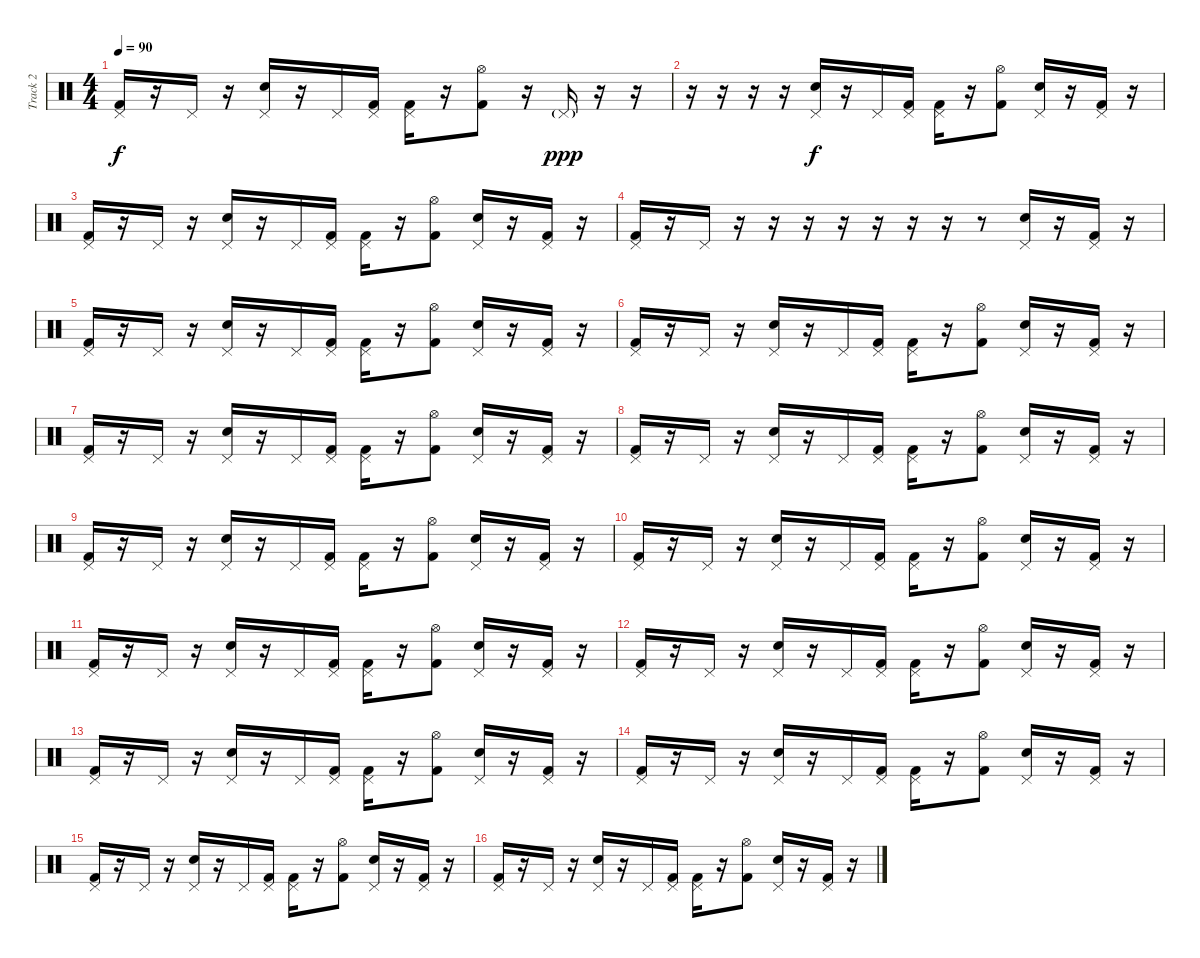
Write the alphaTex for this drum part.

\track ("Track 2" "Track 2") {instrument percussion}
\staff {score}
\articulation defaults
\ts (4 4)
\tempo 90
\clef neutral
\ks c
("Pedal Hi-Hat (hit)" "Kick (hit) 2").16{dy f} r.16 "Pedal Hi-Hat (hit)".16 r.16 ("Pedal Hi-Hat (hit)" "Electric Snare (hit)").16 r.16 "Pedal Hi-Hat (hit)".16 ("Pedal Hi-Hat (hit)" "Kick (hit) 2").16 ("Pedal Hi-Hat (hit)" "Kick (hit) 2").16 r.16 ("Hi-Hat (open)" "Kick (hit) 2").8 r.16 "Pedal Hi-Hat (hit)"{g}.16{dy ppp} r.16 r.16 |
r.16 r.16 r.16 r.16 ("Pedal Hi-Hat (hit)" "Electric Snare (hit)").16{dy f} r.16 "Pedal Hi-Hat (hit)".16 ("Pedal Hi-Hat (hit)" "Kick (hit) 2").16 ("Pedal Hi-Hat (hit)" "Kick (hit) 2").16 r.16 ("Hi-Hat (open)" "Kick (hit) 2").8 ("Pedal Hi-Hat (hit)" "Electric Snare (hit)").16 r.16 ("Pedal Hi-Hat (hit)" "Kick (hit) 2").16 r.16 |
("Pedal Hi-Hat (hit)" "Kick (hit) 2").16 r.16 "Pedal Hi-Hat (hit)".16 r.16 ("Pedal Hi-Hat (hit)" "Electric Snare (hit)").16 r.16 "Pedal Hi-Hat (hit)".16 ("Pedal Hi-Hat (hit)" "Kick (hit) 2").16 ("Pedal Hi-Hat (hit)" "Kick (hit) 2").16 r.16 ("Hi-Hat (open)" "Kick (hit) 2").8 ("Pedal Hi-Hat (hit)" "Electric Snare (hit)").16 r.16 ("Pedal Hi-Hat (hit)" "Kick (hit) 2").16 r.16 |
("Pedal Hi-Hat (hit)" "Kick (hit) 2").16 r.16 "Pedal Hi-Hat (hit)".16 r.16 r.16 r.16 r.16 r.16 r.16 r.16 r.8 ("Pedal Hi-Hat (hit)" "Electric Snare (hit)").16 r.16 ("Pedal Hi-Hat (hit)" "Kick (hit) 2").16 r.16 |
("Pedal Hi-Hat (hit)" "Kick (hit) 2").16 r.16 "Pedal Hi-Hat (hit)".16 r.16 ("Pedal Hi-Hat (hit)" "Electric Snare (hit)").16 r.16 "Pedal Hi-Hat (hit)".16 ("Pedal Hi-Hat (hit)" "Kick (hit) 2").16 ("Pedal Hi-Hat (hit)" "Kick (hit) 2").16 r.16 ("Hi-Hat (open)" "Kick (hit) 2").8 ("Pedal Hi-Hat (hit)" "Electric Snare (hit)").16 r.16 ("Pedal Hi-Hat (hit)" "Kick (hit) 2").16 r.16 |
("Pedal Hi-Hat (hit)" "Kick (hit) 2").16 r.16 "Pedal Hi-Hat (hit)".16 r.16 ("Pedal Hi-Hat (hit)" "Electric Snare (hit)").16 r.16 "Pedal Hi-Hat (hit)".16 ("Pedal Hi-Hat (hit)" "Kick (hit) 2").16 ("Pedal Hi-Hat (hit)" "Kick (hit) 2").16 r.16 ("Hi-Hat (open)" "Kick (hit) 2").8 ("Pedal Hi-Hat (hit)" "Electric Snare (hit)").16 r.16 ("Pedal Hi-Hat (hit)" "Kick (hit) 2").16 r.16 |
("Pedal Hi-Hat (hit)" "Kick (hit) 2").16 r.16 "Pedal Hi-Hat (hit)".16 r.16 ("Pedal Hi-Hat (hit)" "Electric Snare (hit)").16 r.16 "Pedal Hi-Hat (hit)".16 ("Pedal Hi-Hat (hit)" "Kick (hit) 2").16 ("Pedal Hi-Hat (hit)" "Kick (hit) 2").16 r.16 ("Hi-Hat (open)" "Kick (hit) 2").8 ("Pedal Hi-Hat (hit)" "Electric Snare (hit)").16 r.16 ("Pedal Hi-Hat (hit)" "Kick (hit) 2").16 r.16 |
("Pedal Hi-Hat (hit)" "Kick (hit) 2").16 r.16 "Pedal Hi-Hat (hit)".16 r.16 ("Pedal Hi-Hat (hit)" "Electric Snare (hit)").16 r.16 "Pedal Hi-Hat (hit)".16 ("Pedal Hi-Hat (hit)" "Kick (hit) 2").16 ("Pedal Hi-Hat (hit)" "Kick (hit) 2").16 r.16 ("Hi-Hat (open)" "Kick (hit) 2").8 ("Pedal Hi-Hat (hit)" "Electric Snare (hit)").16 r.16 ("Pedal Hi-Hat (hit)" "Kick (hit) 2").16 r.16 |
("Pedal Hi-Hat (hit)" "Kick (hit) 2").16 r.16 "Pedal Hi-Hat (hit)".16 r.16 ("Pedal Hi-Hat (hit)" "Electric Snare (hit)").16 r.16 "Pedal Hi-Hat (hit)".16 ("Pedal Hi-Hat (hit)" "Kick (hit) 2").16 ("Pedal Hi-Hat (hit)" "Kick (hit) 2").16 r.16 ("Hi-Hat (open)" "Kick (hit) 2").8 ("Pedal Hi-Hat (hit)" "Electric Snare (hit)").16 r.16 ("Pedal Hi-Hat (hit)" "Kick (hit) 2").16 r.16 |
("Pedal Hi-Hat (hit)" "Kick (hit) 2").16 r.16 "Pedal Hi-Hat (hit)".16 r.16 ("Pedal Hi-Hat (hit)" "Electric Snare (hit)").16 r.16 "Pedal Hi-Hat (hit)".16 ("Pedal Hi-Hat (hit)" "Kick (hit) 2").16 ("Pedal Hi-Hat (hit)" "Kick (hit) 2").16 r.16 ("Hi-Hat (open)" "Kick (hit) 2").8 ("Pedal Hi-Hat (hit)" "Electric Snare (hit)").16 r.16 ("Pedal Hi-Hat (hit)" "Kick (hit) 2").16 r.16 |
("Pedal Hi-Hat (hit)" "Kick (hit) 2").16 r.16 "Pedal Hi-Hat (hit)".16 r.16 ("Pedal Hi-Hat (hit)" "Electric Snare (hit)").16 r.16 "Pedal Hi-Hat (hit)".16 ("Pedal Hi-Hat (hit)" "Kick (hit) 2").16 ("Pedal Hi-Hat (hit)" "Kick (hit) 2").16 r.16 ("Hi-Hat (open)" "Kick (hit) 2").8 ("Pedal Hi-Hat (hit)" "Electric Snare (hit)").16 r.16 ("Pedal Hi-Hat (hit)" "Kick (hit) 2").16 r.16 |
("Pedal Hi-Hat (hit)" "Kick (hit) 2").16 r.16 "Pedal Hi-Hat (hit)".16 r.16 ("Pedal Hi-Hat (hit)" "Electric Snare (hit)").16 r.16 "Pedal Hi-Hat (hit)".16 ("Pedal Hi-Hat (hit)" "Kick (hit) 2").16 ("Pedal Hi-Hat (hit)" "Kick (hit) 2").16 r.16 ("Hi-Hat (open)" "Kick (hit) 2").8 ("Pedal Hi-Hat (hit)" "Electric Snare (hit)").16 r.16 ("Pedal Hi-Hat (hit)" "Kick (hit) 2").16 r.16 |
("Pedal Hi-Hat (hit)" "Kick (hit) 2").16 r.16 "Pedal Hi-Hat (hit)".16 r.16 ("Pedal Hi-Hat (hit)" "Electric Snare (hit)").16 r.16 "Pedal Hi-Hat (hit)".16 ("Pedal Hi-Hat (hit)" "Kick (hit) 2").16 ("Pedal Hi-Hat (hit)" "Kick (hit) 2").16 r.16 ("Hi-Hat (open)" "Kick (hit) 2").8 ("Pedal Hi-Hat (hit)" "Electric Snare (hit)").16 r.16 ("Pedal Hi-Hat (hit)" "Kick (hit) 2").16 r.16 |
("Pedal Hi-Hat (hit)" "Kick (hit) 2").16 r.16 "Pedal Hi-Hat (hit)".16 r.16 ("Pedal Hi-Hat (hit)" "Electric Snare (hit)").16 r.16 "Pedal Hi-Hat (hit)".16 ("Pedal Hi-Hat (hit)" "Kick (hit) 2").16 ("Pedal Hi-Hat (hit)" "Kick (hit) 2").16 r.16 ("Hi-Hat (open)" "Kick (hit) 2").8 ("Pedal Hi-Hat (hit)" "Electric Snare (hit)").16 r.16 ("Pedal Hi-Hat (hit)" "Kick (hit) 2").16 r.16 |
("Pedal Hi-Hat (hit)" "Kick (hit) 2").16 r.16 "Pedal Hi-Hat (hit)".16 r.16 ("Pedal Hi-Hat (hit)" "Electric Snare (hit)").16 r.16 "Pedal Hi-Hat (hit)".16 ("Pedal Hi-Hat (hit)" "Kick (hit) 2").16 ("Pedal Hi-Hat (hit)" "Kick (hit) 2").16 r.16 ("Hi-Hat (open)" "Kick (hit) 2").8 ("Pedal Hi-Hat (hit)" "Electric Snare (hit)").16 r.16 ("Pedal Hi-Hat (hit)" "Kick (hit) 2").16 r.16 |
("Pedal Hi-Hat (hit)" "Kick (hit) 2").16 r.16 "Pedal Hi-Hat (hit)".16 r.16 ("Pedal Hi-Hat (hit)" "Electric Snare (hit)").16 r.16 "Pedal Hi-Hat (hit)".16 ("Pedal Hi-Hat (hit)" "Kick (hit) 2").16 ("Pedal Hi-Hat (hit)" "Kick (hit) 2").16 r.16 ("Hi-Hat (open)" "Kick (hit) 2").8 ("Pedal Hi-Hat (hit)" "Electric Snare (hit)").16 r.16 ("Pedal Hi-Hat (hit)" "Kick (hit) 2").16 r.16
